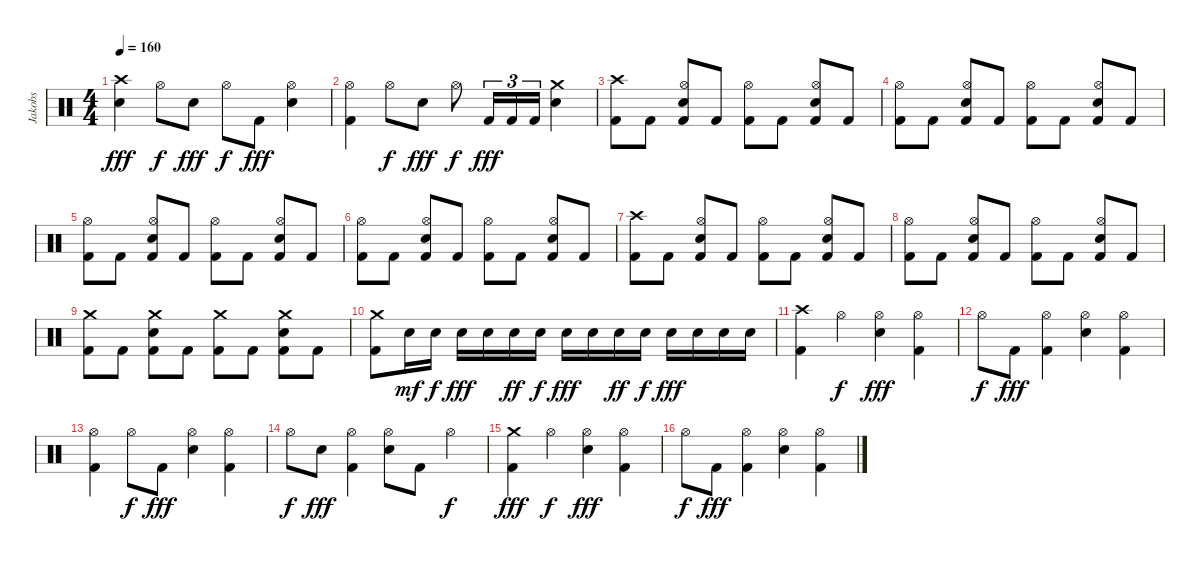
\track ("Jakobs" "Jakobs") {instrument percussion}
\staff {score}
\articulation defaults
\ts (4 4)
\tempo 160
\clef neutral
\ks c
("Crash high (hit)" "Snare (hit) 2").4{dy fff} "Hi-Hat (open)".8{dy f} "Snare (hit) 2".8{dy fff} "Hi-Hat (open)".8{dy f} "Kick (hit) 2".8{dy fff} ("Hi-Hat (open)" "Snare (hit) 2").4 |
("Hi-Hat (open)" "Kick (hit) 2").4 "Hi-Hat (open)".8{dy f} "Snare (hit) 2".8{dy fff} "Hi-Hat (open)".8{dy f} "Kick (hit) 2".16{tu (3 2) dy fff} "Kick (hit) 2".16{tu (3 2)} "Kick (hit) 2".16{tu (3 2)} ("Crash medium (hit)" "Snare (hit) 2").4 |
("Crash high (hit)" "Kick (hit) 2").8 "Kick (hit) 2".8 ("Hi-Hat (open)" "Snare (hit) 2" "Kick (hit) 2").8 "Kick (hit) 2".8 ("Hi-Hat (open)" "Kick (hit) 2").8 "Kick (hit) 2".8 ("Hi-Hat (open)" "Snare (hit) 2" "Kick (hit) 2").8 "Kick (hit) 2".8 |
("Hi-Hat (open)" "Kick (hit) 2").8 "Kick (hit) 2".8 ("Hi-Hat (open)" "Snare (hit) 2" "Kick (hit) 2").8 "Kick (hit) 2".8 ("Hi-Hat (open)" "Kick (hit) 2").8 "Kick (hit) 2".8 ("Hi-Hat (open)" "Snare (hit) 2" "Kick (hit) 2").8 "Kick (hit) 2".8 |
("Hi-Hat (open)" "Kick (hit) 2").8 "Kick (hit) 2".8 ("Hi-Hat (open)" "Snare (hit) 2" "Kick (hit) 2").8 "Kick (hit) 2".8 ("Hi-Hat (open)" "Kick (hit) 2").8 "Kick (hit) 2".8 ("Hi-Hat (open)" "Snare (hit) 2" "Kick (hit) 2").8 "Kick (hit) 2".8 |
("Hi-Hat (open)" "Kick (hit) 2").8 "Kick (hit) 2".8 ("Hi-Hat (open)" "Snare (hit) 2" "Kick (hit) 2").8 "Kick (hit) 2".8 ("Hi-Hat (open)" "Kick (hit) 2").8 "Kick (hit) 2".8 ("Hi-Hat (open)" "Snare (hit) 2" "Kick (hit) 2").8 "Kick (hit) 2".8 |
("Crash high (hit)" "Kick (hit) 2").8 "Kick (hit) 2".8 ("Hi-Hat (open)" "Snare (hit) 2" "Kick (hit) 2").8 "Kick (hit) 2".8 ("Hi-Hat (open)" "Kick (hit) 2").8 "Kick (hit) 2".8 ("Hi-Hat (open)" "Snare (hit) 2" "Kick (hit) 2").8 "Kick (hit) 2".8 |
("Hi-Hat (open)" "Kick (hit) 2").8 "Kick (hit) 2".8 ("Hi-Hat (open)" "Snare (hit) 2" "Kick (hit) 2").8 "Kick (hit) 2".8 ("Hi-Hat (open)" "Kick (hit) 2").8 "Kick (hit) 2".8 ("Hi-Hat (open)" "Snare (hit) 2" "Kick (hit) 2").8 "Kick (hit) 2".8 |
("Crash medium (hit)" "Kick (hit) 2").8 "Kick (hit) 2".8 ("Crash medium (hit)" "Snare (hit) 2" "Kick (hit) 2").8 "Kick (hit) 2".8 ("Crash medium (hit)" "Kick (hit) 2").8 "Kick (hit) 2".8 ("Crash medium (hit)" "Snare (hit) 2" "Kick (hit) 2").8 "Kick (hit) 2".8 |
("Crash medium (hit)" "Kick (hit) 2").8 "Snare (hit) 2".16{dy mf} "Snare (hit) 2".16{dy f} "Snare (hit) 2".16{dy fff} "Snare (hit) 2".16 "Snare (hit) 2".16{dy ff} "Snare (hit) 2".16{dy f} "Snare (hit) 2".16{dy fff} "Snare (hit) 2".16 "Snare (hit) 2".16{dy ff} "Snare (hit) 2".16{dy f} "Snare (hit) 2".16{dy fff} "Snare (hit) 2".16 "Snare (hit) 2".16 "Snare (hit) 2".16 |
("Crash high (hit)" "Kick (hit) 2").4 "Hi-Hat (open)".4{dy f} ("Hi-Hat (open)" "Snare (hit) 2").4{dy fff} ("Hi-Hat (open)" "Kick (hit) 2").4 |
"Hi-Hat (open)".8{dy f} "Kick (hit) 2".8{dy fff} ("Hi-Hat (open)" "Kick (hit) 2").4 ("Hi-Hat (open)" "Snare (hit) 2").4 ("Hi-Hat (open)" "Kick (hit) 2").4 |
("Hi-Hat (open)" "Kick (hit) 2").4 "Hi-Hat (open)".8{dy f} "Kick (hit) 2".8{dy fff} ("Hi-Hat (open)" "Snare (hit) 2").4 ("Hi-Hat (open)" "Kick (hit) 2").4 |
"Hi-Hat (open)".8{dy f} "Snare (hit) 2".8{dy fff} ("Hi-Hat (open)" "Kick (hit) 2").4 ("Hi-Hat (open)" "Snare (hit) 2").8 "Kick (hit) 2".8 "Hi-Hat (open)".4{dy f} |
("Crash medium (hit)" "Kick (hit) 2").4{dy fff} "Hi-Hat (open)".4{dy f} ("Hi-Hat (open)" "Snare (hit) 2").4{dy fff} ("Hi-Hat (open)" "Kick (hit) 2").4 |
"Hi-Hat (open)".8{dy f} "Kick (hit) 2".8{dy fff} ("Hi-Hat (open)" "Kick (hit) 2").4 ("Hi-Hat (open)" "Snare (hit) 2").4 ("Hi-Hat (open)" "Kick (hit) 2").4
